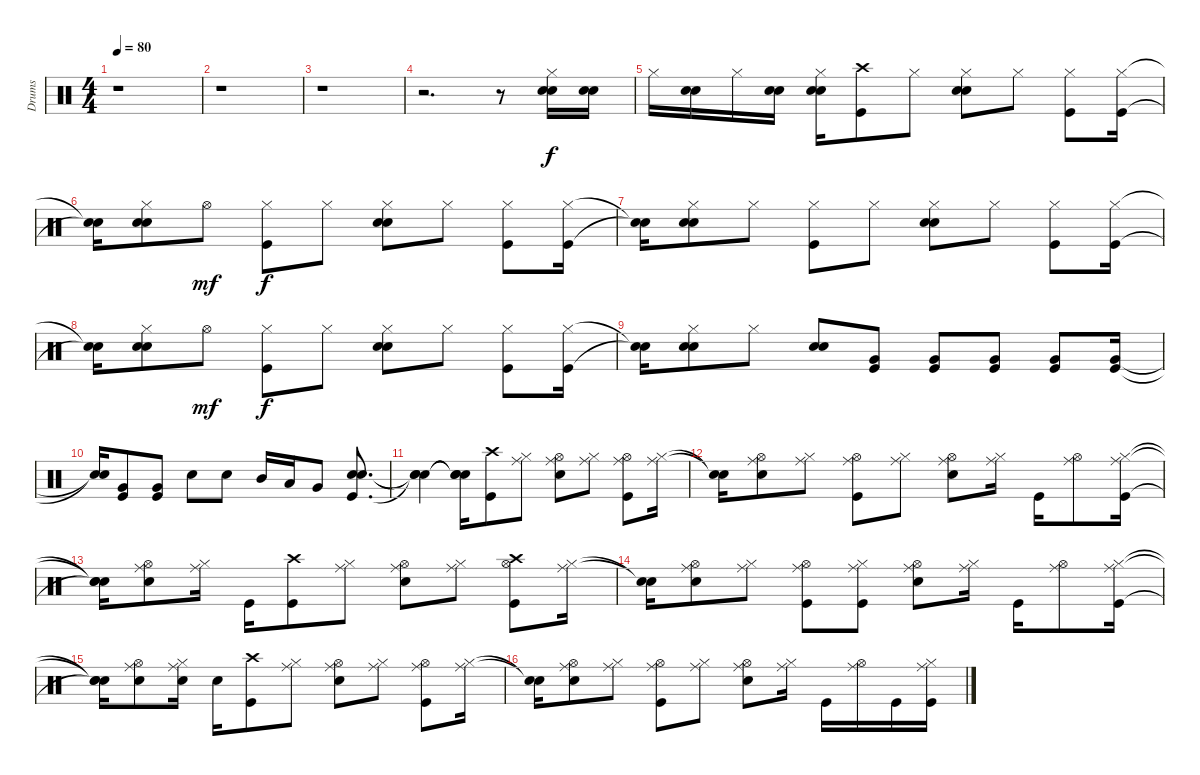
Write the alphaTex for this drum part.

\track ("Drums" "Drums") {instrument percussion}
\staff {score}
\articulation defaults
\ts (4 4)
\tempo 80
\clef neutral
\ks c
r.1{dy f} |
r.1 |
r.1 |
r.2{d} r.8 ("Electric Snare (hit)" "Hi-Hat (closed)" "Electric Snare (hit)").16 ("Electric Snare (hit)" "Electric Snare (hit)").16 |
"Hi-Hat (closed)".16 ("Electric Snare (hit)" "Electric Snare (hit)").16 "Hi-Hat (closed)".16 ("Electric Snare (hit)" "Electric Snare (hit)").16 ("Electric Snare (hit)" "Hi-Hat (closed)" "Electric Snare (hit)").16 ("Kick (hit)" "Crash high (hit)").8 "Hi-Hat (closed)".8 ("Electric Snare (hit)" "Hi-Hat (closed)" "Electric Snare (hit)").8 "Hi-Hat (closed)".8 ("Kick (hit)" "Hi-Hat (closed)").8 ("Kick (hit)" "Hi-Hat (closed)").16 |
("Snare (hit)"{t} "Snare (hit)"{t}).16 ("Electric Snare (hit)" "Hi-Hat (closed)" "Electric Snare (hit)").8 "Hi-Hat (open)".8{dy mf} ("Kick (hit)" "Hi-Hat (closed)").8{dy f} "Hi-Hat (closed)".8 ("Electric Snare (hit)" "Hi-Hat (closed)" "Electric Snare (hit)").8 "Hi-Hat (closed)".8 ("Kick (hit)" "Hi-Hat (closed)").8 ("Kick (hit)" "Hi-Hat (closed)").16 |
("Snare (hit)"{t} "Snare (hit)"{t}).16 ("Electric Snare (hit)" "Hi-Hat (closed)" "Electric Snare (hit)").8 "Hi-Hat (closed)".8 ("Kick (hit)" "Hi-Hat (closed)").8 "Hi-Hat (closed)".8 ("Electric Snare (hit)" "Hi-Hat (closed)" "Electric Snare (hit)").8 "Hi-Hat (closed)".8 ("Kick (hit)" "Hi-Hat (closed)").8 ("Kick (hit)" "Hi-Hat (closed)").16 |
("Snare (hit)"{t} "Snare (hit)"{t}).16 ("Electric Snare (hit)" "Hi-Hat (closed)" "Electric Snare (hit)").8 "Hi-Hat (open)".8{dy mf} ("Kick (hit)" "Hi-Hat (closed)").8{dy f} "Hi-Hat (closed)".8 ("Electric Snare (hit)" "Hi-Hat (closed)" "Electric Snare (hit)").8 "Hi-Hat (closed)".8 ("Kick (hit)" "Hi-Hat (closed)").8 ("Kick (hit)" "Hi-Hat (closed)").16 |
("Snare (hit)"{t} "Snare (hit)"{t}).16 ("Electric Snare (hit)" "Hi-Hat (closed)" "Electric Snare (hit)").8 "Hi-Hat (closed)".8 ("Electric Snare (hit)" "Electric Snare (hit)").8 ("Kick (hit)" "Very Low Tom (hit)").8 ("Kick (hit)" "Very Low Tom (hit)").8 ("Kick (hit)" "Very Low Tom (hit)").8 ("Kick (hit)" "Very Low Tom (hit)").8 ("Kick (hit)" "Very Low Tom (hit)").16 |
("Snare (hit)"{t} "Snare (hit)"{t}).16 ("Kick (hit)" "Very Low Tom (hit)").8 ("Kick (hit)" "Very Low Tom (hit)").8 "Electric Snare (hit)".8 "Electric Snare (hit)".8 "Mid Tom (hit)".16 "Low Tom (hit)".16 "Very Low Tom (hit)".8 ("Kick (hit)" "Electric Snare (hit)" "Electric Snare (hit)").8{d} |
("Snare (hit)"{t} "Snare (hit)"{t} "Snare (hit)"{t}).4 ("Snare (hit)"{t} "Snare (hit)"{t} "Snare (hit)"{t}).16 ("Kick (hit)" "Crash high (hit)").8 ("Hi-Hat (closed)" "Ride (middle)").8 ("Electric Snare (hit)" "Hi-Hat (open)" "Ride (middle)").8 ("Hi-Hat (closed)" "Ride (middle)").8 ("Kick (hit)" "Hi-Hat (open)" "Ride (middle)").8 ("Hi-Hat (closed)" "Ride (middle)").16 |
("Snare (hit)"{t} "Snare (hit)"{t}).16 ("Electric Snare (hit)" "Hi-Hat (open)" "Ride (middle)").8 ("Hi-Hat (closed)" "Ride (middle)").8 ("Kick (hit)" "Hi-Hat (open)" "Ride (middle)").8 ("Hi-Hat (closed)" "Ride (middle)").8 ("Electric Snare (hit)" "Hi-Hat (open)" "Ride (middle)").8 ("Hi-Hat (closed)" "Ride (middle)").16 "Kick (hit)".16 ("Hi-Hat (open)" "Ride (middle)").8 ("Kick (hit)" "Hi-Hat (closed)" "Ride (middle)").16 |
("Snare (hit)"{t} "Snare (hit)"{t} "Snare (hit)"{t}).16 ("Electric Snare (hit)" "Hi-Hat (open)" "Ride (middle)").8 ("Hi-Hat (closed)" "Ride (middle)").16 "Kick (hit)".16 ("Kick (hit)" "Crash high (hit)").8 ("Hi-Hat (closed)" "Ride (middle)").8 ("Electric Snare (hit)" "Hi-Hat (open)" "Ride (middle)").8 ("Hi-Hat (closed)" "Ride (middle)").8 ("Kick (hit)" "Hi-Hat (open)" "Crash high (hit)").8 ("Hi-Hat (closed)" "Ride (middle)").16 |
("Snare (hit)"{t} "Snare (hit)"{t}).16 ("Electric Snare (hit)" "Hi-Hat (open)" "Ride (middle)").8 ("Hi-Hat (closed)" "Ride (middle)").8 ("Kick (hit)" "Hi-Hat (open)" "Ride (middle)").8 ("Kick (hit)" "Hi-Hat (closed)" "Ride (middle)").8 ("Electric Snare (hit)" "Hi-Hat (open)" "Ride (middle)").8 ("Hi-Hat (closed)" "Ride (middle)").16 "Kick (hit)".16 ("Hi-Hat (open)" "Ride (middle)").8 ("Kick (hit)" "Hi-Hat (closed)" "Ride (middle)").16 |
("Snare (hit)"{t} "Snare (hit)"{t} "Snare (hit)"{t}).16 ("Electric Snare (hit)" "Hi-Hat (open)" "Ride (middle)").8 ("Electric Snare (hit)" "Hi-Hat (closed)" "Ride (middle)").16 "Electric Snare (hit)".16 ("Kick (hit)" "Crash high (hit)").8 ("Hi-Hat (closed)" "Ride (middle)").8 ("Electric Snare (hit)" "Hi-Hat (open)" "Ride (middle)").8 ("Hi-Hat (closed)" "Ride (middle)").8 ("Kick (hit)" "Hi-Hat (open)" "Ride (middle)").8 ("Hi-Hat (closed)" "Ride (middle)").16 |
("Snare (hit)"{t} "Snare (hit)"{t}).16 ("Electric Snare (hit)" "Hi-Hat (open)" "Ride (middle)").8 ("Hi-Hat (closed)" "Ride (middle)").8 ("Kick (hit)" "Hi-Hat (open)" "Ride (middle)").8 ("Hi-Hat (closed)" "Ride (middle)").8 ("Electric Snare (hit)" "Hi-Hat (open)" "Ride (middle)").8 ("Hi-Hat (closed)" "Ride (middle)").16 "Kick (hit)".16 ("Hi-Hat (open)" "Ride (middle)").16 "Kick (hit)".16 ("Kick (hit)" "Hi-Hat (closed)" "Ride (middle)").16
